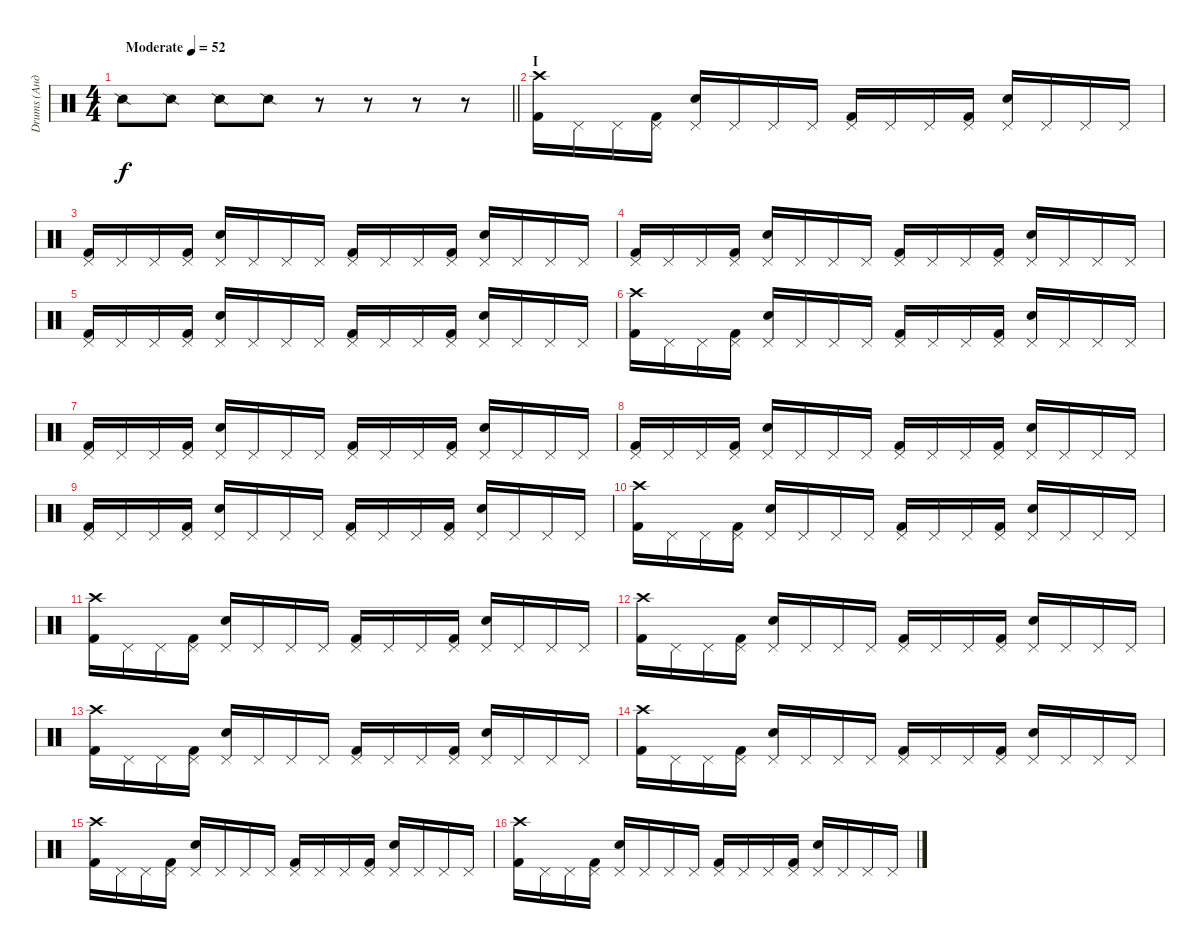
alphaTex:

\track ("Drums (Андрей)" "Drums (Анд") {instrument percussion}
\staff {score}
\articulation defaults
\ts (4 4)
\tempo (52 "Moderate")
\clef neutral
\barLineRight lightlight
\ks c "Snare (side stick) 2".8{dy f} "Snare (side stick) 2".8 "Snare (side stick) 2".8 "Snare (side stick) 2".8
r.8 r.8 r.8 r.8 |
\section ("" "I")
("Crash high (hit)" "Kick (hit) 2").16 "Pedal Hi-Hat (hit)".16 "Pedal Hi-Hat (hit)".16 ("Pedal Hi-Hat (hit)" "Kick (hit) 2").16 ("Pedal Hi-Hat (hit)" "Snare (hit) 2").16 "Pedal Hi-Hat (hit)".16 "Pedal Hi-Hat (hit)".16 "Pedal Hi-Hat (hit)".16 ("Pedal Hi-Hat (hit)" "Kick (hit) 2").16 "Pedal Hi-Hat (hit)".16 "Pedal Hi-Hat (hit)".16 ("Pedal Hi-Hat (hit)" "Kick (hit) 2").16 ("Pedal Hi-Hat (hit)" "Snare (hit) 2").16 "Pedal Hi-Hat (hit)".16 "Pedal Hi-Hat (hit)".16 "Pedal Hi-Hat (hit)".16 |
("Pedal Hi-Hat (hit)" "Kick (hit) 2").16 "Pedal Hi-Hat (hit)".16 "Pedal Hi-Hat (hit)".16 ("Pedal Hi-Hat (hit)" "Kick (hit) 2").16 ("Pedal Hi-Hat (hit)" "Snare (hit) 2").16 "Pedal Hi-Hat (hit)".16 "Pedal Hi-Hat (hit)".16 "Pedal Hi-Hat (hit)".16 ("Pedal Hi-Hat (hit)" "Kick (hit) 2").16 "Pedal Hi-Hat (hit)".16 "Pedal Hi-Hat (hit)".16 ("Pedal Hi-Hat (hit)" "Kick (hit) 2").16 ("Pedal Hi-Hat (hit)" "Snare (hit) 2").16 "Pedal Hi-Hat (hit)".16 "Pedal Hi-Hat (hit)".16 "Pedal Hi-Hat (hit)".16 |
("Pedal Hi-Hat (hit)" "Kick (hit) 2").16 "Pedal Hi-Hat (hit)".16 "Pedal Hi-Hat (hit)".16 ("Pedal Hi-Hat (hit)" "Kick (hit) 2").16 ("Pedal Hi-Hat (hit)" "Snare (hit) 2").16 "Pedal Hi-Hat (hit)".16 "Pedal Hi-Hat (hit)".16 "Pedal Hi-Hat (hit)".16 ("Pedal Hi-Hat (hit)" "Kick (hit) 2").16 "Pedal Hi-Hat (hit)".16 "Pedal Hi-Hat (hit)".16 ("Pedal Hi-Hat (hit)" "Kick (hit) 2").16 ("Pedal Hi-Hat (hit)" "Snare (hit) 2").16 "Pedal Hi-Hat (hit)".16 "Pedal Hi-Hat (hit)".16 "Pedal Hi-Hat (hit)".16 |
("Pedal Hi-Hat (hit)" "Kick (hit) 2").16 "Pedal Hi-Hat (hit)".16 "Pedal Hi-Hat (hit)".16 ("Pedal Hi-Hat (hit)" "Kick (hit) 2").16 ("Pedal Hi-Hat (hit)" "Snare (hit) 2").16 "Pedal Hi-Hat (hit)".16 "Pedal Hi-Hat (hit)".16 "Pedal Hi-Hat (hit)".16 ("Pedal Hi-Hat (hit)" "Kick (hit) 2").16 "Pedal Hi-Hat (hit)".16 "Pedal Hi-Hat (hit)".16 ("Pedal Hi-Hat (hit)" "Kick (hit) 2").16 ("Pedal Hi-Hat (hit)" "Snare (hit) 2").16 "Pedal Hi-Hat (hit)".16 "Pedal Hi-Hat (hit)".16 "Pedal Hi-Hat (hit)".16 |
("Crash high (hit)" "Kick (hit) 2").16 "Pedal Hi-Hat (hit)".16 "Pedal Hi-Hat (hit)".16 ("Pedal Hi-Hat (hit)" "Kick (hit) 2").16 ("Pedal Hi-Hat (hit)" "Snare (hit) 2").16 "Pedal Hi-Hat (hit)".16 "Pedal Hi-Hat (hit)".16 "Pedal Hi-Hat (hit)".16 ("Pedal Hi-Hat (hit)" "Kick (hit) 2").16 "Pedal Hi-Hat (hit)".16 "Pedal Hi-Hat (hit)".16 ("Pedal Hi-Hat (hit)" "Kick (hit) 2").16 ("Pedal Hi-Hat (hit)" "Snare (hit) 2").16 "Pedal Hi-Hat (hit)".16 "Pedal Hi-Hat (hit)".16 "Pedal Hi-Hat (hit)".16 |
("Pedal Hi-Hat (hit)" "Kick (hit) 2").16 "Pedal Hi-Hat (hit)".16 "Pedal Hi-Hat (hit)".16 ("Pedal Hi-Hat (hit)" "Kick (hit) 2").16 ("Pedal Hi-Hat (hit)" "Snare (hit) 2").16 "Pedal Hi-Hat (hit)".16 "Pedal Hi-Hat (hit)".16 "Pedal Hi-Hat (hit)".16 ("Pedal Hi-Hat (hit)" "Kick (hit) 2").16 "Pedal Hi-Hat (hit)".16 "Pedal Hi-Hat (hit)".16 ("Pedal Hi-Hat (hit)" "Kick (hit) 2").16 ("Pedal Hi-Hat (hit)" "Snare (hit) 2").16 "Pedal Hi-Hat (hit)".16 "Pedal Hi-Hat (hit)".16 "Pedal Hi-Hat (hit)".16 |
("Pedal Hi-Hat (hit)" "Kick (hit) 2").16 "Pedal Hi-Hat (hit)".16 "Pedal Hi-Hat (hit)".16 ("Pedal Hi-Hat (hit)" "Kick (hit) 2").16 ("Pedal Hi-Hat (hit)" "Snare (hit) 2").16 "Pedal Hi-Hat (hit)".16 "Pedal Hi-Hat (hit)".16 "Pedal Hi-Hat (hit)".16 ("Pedal Hi-Hat (hit)" "Kick (hit) 2").16 "Pedal Hi-Hat (hit)".16 "Pedal Hi-Hat (hit)".16 ("Pedal Hi-Hat (hit)" "Kick (hit) 2").16 ("Pedal Hi-Hat (hit)" "Snare (hit) 2").16 "Pedal Hi-Hat (hit)".16 "Pedal Hi-Hat (hit)".16 "Pedal Hi-Hat (hit)".16 |
("Pedal Hi-Hat (hit)" "Kick (hit) 2").16 "Pedal Hi-Hat (hit)".16 "Pedal Hi-Hat (hit)".16 ("Pedal Hi-Hat (hit)" "Kick (hit) 2").16 ("Pedal Hi-Hat (hit)" "Snare (hit) 2").16 "Pedal Hi-Hat (hit)".16 "Pedal Hi-Hat (hit)".16 "Pedal Hi-Hat (hit)".16 ("Pedal Hi-Hat (hit)" "Kick (hit) 2").16 "Pedal Hi-Hat (hit)".16 "Pedal Hi-Hat (hit)".16 ("Pedal Hi-Hat (hit)" "Kick (hit) 2").16 ("Pedal Hi-Hat (hit)" "Snare (hit) 2").16 "Pedal Hi-Hat (hit)".16 "Pedal Hi-Hat (hit)".16 "Pedal Hi-Hat (hit)".16 |
("Crash high (hit)" "Kick (hit) 2").16 "Pedal Hi-Hat (hit)".16 "Pedal Hi-Hat (hit)".16 ("Pedal Hi-Hat (hit)" "Kick (hit) 2").16 ("Pedal Hi-Hat (hit)" "Snare (hit) 2").16 "Pedal Hi-Hat (hit)".16 "Pedal Hi-Hat (hit)".16 "Pedal Hi-Hat (hit)".16 ("Pedal Hi-Hat (hit)" "Kick (hit) 2").16 "Pedal Hi-Hat (hit)".16 "Pedal Hi-Hat (hit)".16 ("Pedal Hi-Hat (hit)" "Kick (hit) 2").16 ("Pedal Hi-Hat (hit)" "Snare (hit) 2").16 "Pedal Hi-Hat (hit)".16 "Pedal Hi-Hat (hit)".16 "Pedal Hi-Hat (hit)".16 |
("Crash high (hit)" "Kick (hit) 2").16 "Pedal Hi-Hat (hit)".16 "Pedal Hi-Hat (hit)".16 ("Pedal Hi-Hat (hit)" "Kick (hit) 2").16 ("Pedal Hi-Hat (hit)" "Snare (hit) 2").16 "Pedal Hi-Hat (hit)".16 "Pedal Hi-Hat (hit)".16 "Pedal Hi-Hat (hit)".16 ("Pedal Hi-Hat (hit)" "Kick (hit) 2").16 "Pedal Hi-Hat (hit)".16 "Pedal Hi-Hat (hit)".16 ("Pedal Hi-Hat (hit)" "Kick (hit) 2").16 ("Pedal Hi-Hat (hit)" "Snare (hit) 2").16 "Pedal Hi-Hat (hit)".16 "Pedal Hi-Hat (hit)".16 "Pedal Hi-Hat (hit)".16 |
("Crash high (hit)" "Kick (hit) 2").16 "Pedal Hi-Hat (hit)".16 "Pedal Hi-Hat (hit)".16 ("Pedal Hi-Hat (hit)" "Kick (hit) 2").16 ("Pedal Hi-Hat (hit)" "Snare (hit) 2").16 "Pedal Hi-Hat (hit)".16 "Pedal Hi-Hat (hit)".16 "Pedal Hi-Hat (hit)".16 ("Pedal Hi-Hat (hit)" "Kick (hit) 2").16 "Pedal Hi-Hat (hit)".16 "Pedal Hi-Hat (hit)".16 ("Pedal Hi-Hat (hit)" "Kick (hit) 2").16 ("Pedal Hi-Hat (hit)" "Snare (hit) 2").16 "Pedal Hi-Hat (hit)".16 "Pedal Hi-Hat (hit)".16 "Pedal Hi-Hat (hit)".16 |
("Crash high (hit)" "Kick (hit) 2").16 "Pedal Hi-Hat (hit)".16 "Pedal Hi-Hat (hit)".16 ("Pedal Hi-Hat (hit)" "Kick (hit) 2").16 ("Pedal Hi-Hat (hit)" "Snare (hit) 2").16 "Pedal Hi-Hat (hit)".16 "Pedal Hi-Hat (hit)".16 "Pedal Hi-Hat (hit)".16 ("Pedal Hi-Hat (hit)" "Kick (hit) 2").16 "Pedal Hi-Hat (hit)".16 "Pedal Hi-Hat (hit)".16 ("Pedal Hi-Hat (hit)" "Kick (hit) 2").16 ("Pedal Hi-Hat (hit)" "Snare (hit) 2").16 "Pedal Hi-Hat (hit)".16 "Pedal Hi-Hat (hit)".16 "Pedal Hi-Hat (hit)".16 |
("Crash high (hit)" "Kick (hit) 2").16 "Pedal Hi-Hat (hit)".16 "Pedal Hi-Hat (hit)".16 ("Pedal Hi-Hat (hit)" "Kick (hit) 2").16 ("Pedal Hi-Hat (hit)" "Snare (hit) 2").16 "Pedal Hi-Hat (hit)".16 "Pedal Hi-Hat (hit)".16 "Pedal Hi-Hat (hit)".16 ("Pedal Hi-Hat (hit)" "Kick (hit) 2").16 "Pedal Hi-Hat (hit)".16 "Pedal Hi-Hat (hit)".16 ("Pedal Hi-Hat (hit)" "Kick (hit) 2").16 ("Pedal Hi-Hat (hit)" "Snare (hit) 2").16 "Pedal Hi-Hat (hit)".16 "Pedal Hi-Hat (hit)".16 "Pedal Hi-Hat (hit)".16 |
("Crash high (hit)" "Kick (hit) 2").16 "Pedal Hi-Hat (hit)".16 "Pedal Hi-Hat (hit)".16 ("Pedal Hi-Hat (hit)" "Kick (hit) 2").16 ("Pedal Hi-Hat (hit)" "Snare (hit) 2").16 "Pedal Hi-Hat (hit)".16 "Pedal Hi-Hat (hit)".16 "Pedal Hi-Hat (hit)".16 ("Pedal Hi-Hat (hit)" "Kick (hit) 2").16 "Pedal Hi-Hat (hit)".16 "Pedal Hi-Hat (hit)".16 ("Pedal Hi-Hat (hit)" "Kick (hit) 2").16 ("Pedal Hi-Hat (hit)" "Snare (hit) 2").16 "Pedal Hi-Hat (hit)".16 "Pedal Hi-Hat (hit)".16 "Pedal Hi-Hat (hit)".16 |
("Crash high (hit)" "Kick (hit) 2").16 "Pedal Hi-Hat (hit)".16 "Pedal Hi-Hat (hit)".16 ("Pedal Hi-Hat (hit)" "Kick (hit) 2").16 ("Pedal Hi-Hat (hit)" "Snare (hit) 2").16 "Pedal Hi-Hat (hit)".16 "Pedal Hi-Hat (hit)".16 "Pedal Hi-Hat (hit)".16 ("Pedal Hi-Hat (hit)" "Kick (hit) 2").16 "Pedal Hi-Hat (hit)".16 "Pedal Hi-Hat (hit)".16 ("Pedal Hi-Hat (hit)" "Kick (hit) 2").16 ("Pedal Hi-Hat (hit)" "Snare (hit) 2").16 "Pedal Hi-Hat (hit)".16 "Pedal Hi-Hat (hit)".16 "Pedal Hi-Hat (hit)".16
